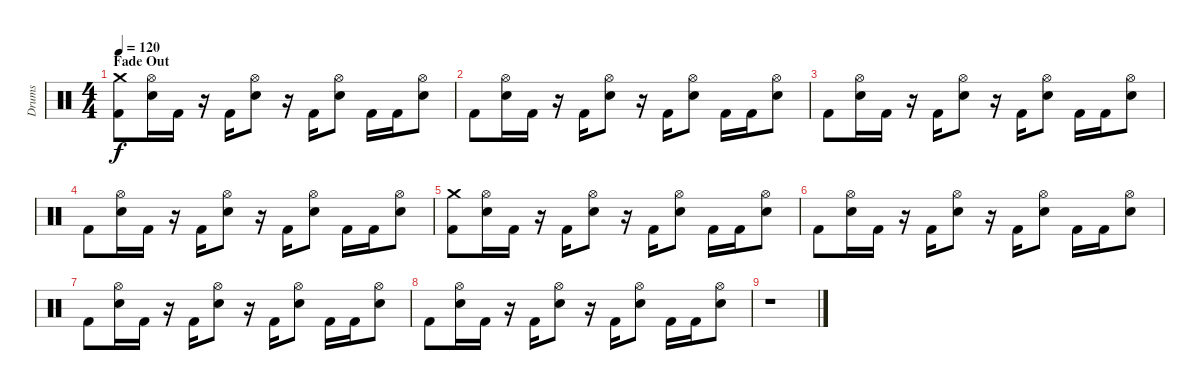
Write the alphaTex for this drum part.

\track ("Drums" "Drums") {instrument percussion}
\staff {score}
\articulation defaults
\ts (4 4)
\section ("" "Fade Out")
\tempo 120
\clef neutral
\ks c
("Crash medium (hit)" "Kick (hit) 2").8{dy f} ("Hi-Hat (open)" "Snare (hit) 2").16 "Kick (hit) 2".16 r.16 "Kick (hit) 2".16 ("Hi-Hat (open)" "Snare (hit) 2").8 r.16 "Kick (hit) 2".16 ("Hi-Hat (open)" "Snare (hit) 2").8 "Kick (hit) 2".16 "Kick (hit) 2".16 ("Hi-Hat (open)" "Snare (hit) 2").8 |
"Kick (hit) 2".8 ("Hi-Hat (open)" "Snare (hit) 2").16 "Kick (hit) 2".16 r.16 "Kick (hit) 2".16 ("Hi-Hat (open)" "Snare (hit) 2").8 r.16 "Kick (hit) 2".16 ("Hi-Hat (open)" "Snare (hit) 2").8 "Kick (hit) 2".16 "Kick (hit) 2".16 ("Hi-Hat (open)" "Snare (hit) 2").8 |
"Kick (hit) 2".8 ("Hi-Hat (open)" "Snare (hit) 2").16 "Kick (hit) 2".16 r.16 "Kick (hit) 2".16 ("Hi-Hat (open)" "Snare (hit) 2").8 r.16 "Kick (hit) 2".16 ("Hi-Hat (open)" "Snare (hit) 2").8 "Kick (hit) 2".16 "Kick (hit) 2".16 ("Hi-Hat (open)" "Snare (hit) 2").8 |
"Kick (hit) 2".8 ("Hi-Hat (open)" "Snare (hit) 2").16 "Kick (hit) 2".16 r.16 "Kick (hit) 2".16 ("Hi-Hat (open)" "Snare (hit) 2").8 r.16 "Kick (hit) 2".16 ("Hi-Hat (open)" "Snare (hit) 2").8 "Kick (hit) 2".16 "Kick (hit) 2".16 ("Hi-Hat (open)" "Snare (hit) 2").8 |
("Crash medium (hit)" "Kick (hit) 2").8 ("Hi-Hat (open)" "Snare (hit) 2").16 "Kick (hit) 2".16 r.16 "Kick (hit) 2".16 ("Hi-Hat (open)" "Snare (hit) 2").8 r.16 "Kick (hit) 2".16 ("Hi-Hat (open)" "Snare (hit) 2").8 "Kick (hit) 2".16 "Kick (hit) 2".16 ("Hi-Hat (open)" "Snare (hit) 2").8 |
"Kick (hit) 2".8 ("Hi-Hat (open)" "Snare (hit) 2").16 "Kick (hit) 2".16 r.16 "Kick (hit) 2".16 ("Hi-Hat (open)" "Snare (hit) 2").8 r.16 "Kick (hit) 2".16 ("Hi-Hat (open)" "Snare (hit) 2").8 "Kick (hit) 2".16 "Kick (hit) 2".16 ("Hi-Hat (open)" "Snare (hit) 2").8 |
"Kick (hit) 2".8 ("Hi-Hat (open)" "Snare (hit) 2").16 "Kick (hit) 2".16 r.16 "Kick (hit) 2".16 ("Hi-Hat (open)" "Snare (hit) 2").8 r.16 "Kick (hit) 2".16 ("Hi-Hat (open)" "Snare (hit) 2").8 "Kick (hit) 2".16 "Kick (hit) 2".16 ("Hi-Hat (open)" "Snare (hit) 2").8 |
"Kick (hit) 2".8 ("Hi-Hat (open)" "Snare (hit) 2").16 "Kick (hit) 2".16 r.16 "Kick (hit) 2".16 ("Hi-Hat (open)" "Snare (hit) 2").8 r.16 "Kick (hit) 2".16 ("Hi-Hat (open)" "Snare (hit) 2").8 "Kick (hit) 2".16 "Kick (hit) 2".16 ("Hi-Hat (open)" "Snare (hit) 2").8 |
r.1
